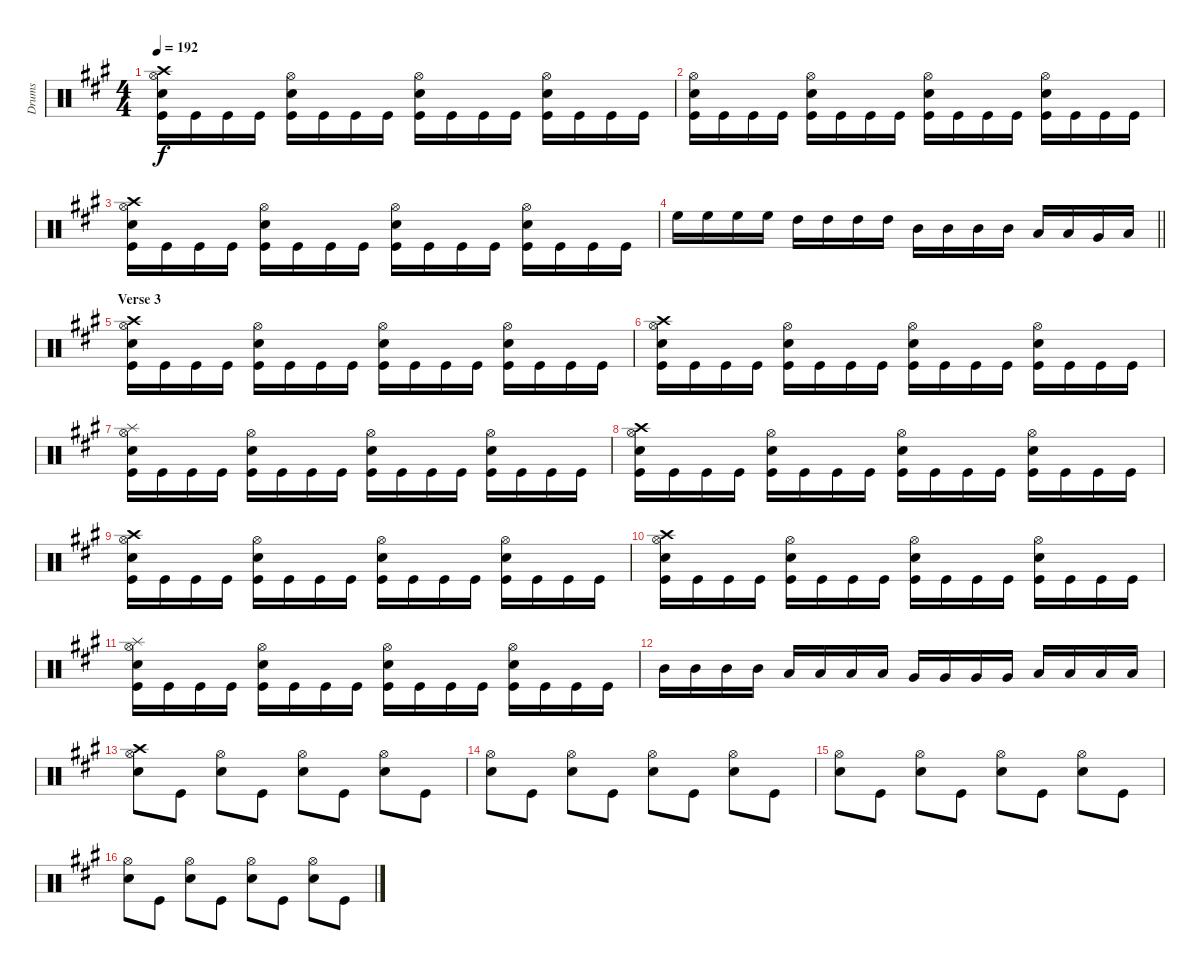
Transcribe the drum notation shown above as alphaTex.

\track ("Drums" "Drums") {instrument percussion}
\staff {score}
\articulation defaults
\ts (4 4)
\tempo 192
\clef neutral
\ks f#minor
("Crash high (hit)" "Hi-Hat (open)" "Snare (hit) 2" "Kick (hit)").16{dy f} "Kick (hit)".16 "Kick (hit)".16 "Kick (hit)".16 ("Hi-Hat (open)" "Snare (hit) 2" "Kick (hit)").16 "Kick (hit)".16 "Kick (hit)".16 "Kick (hit)".16 ("Hi-Hat (open)" "Snare (hit) 2" "Kick (hit)").16 "Kick (hit)".16 "Kick (hit)".16 "Kick (hit)".16 ("Hi-Hat (open)" "Snare (hit) 2" "Kick (hit)").16 "Kick (hit)".16 "Kick (hit)".16 "Kick (hit)".16 |
("Hi-Hat (open)" "Snare (hit) 2" "Kick (hit)").16 "Kick (hit)".16 "Kick (hit)".16 "Kick (hit)".16 ("Hi-Hat (open)" "Snare (hit) 2" "Kick (hit)").16 "Kick (hit)".16 "Kick (hit)".16 "Kick (hit)".16 ("Hi-Hat (open)" "Snare (hit) 2" "Kick (hit)").16 "Kick (hit)".16 "Kick (hit)".16 "Kick (hit)".16 ("Hi-Hat (open)" "Snare (hit) 2" "Kick (hit)").16 "Kick (hit)".16 "Kick (hit)".16 "Kick (hit)".16 |
("Crash high (hit)" "Hi-Hat (open)" "Snare (hit) 2" "Kick (hit)").16 "Kick (hit)".16 "Kick (hit)".16 "Kick (hit)".16 ("Hi-Hat (open)" "Snare (hit) 2" "Kick (hit)").16 "Kick (hit)".16 "Kick (hit)".16 "Kick (hit)".16 ("Hi-Hat (open)" "Snare (hit) 2" "Kick (hit)").16 "Kick (hit)".16 "Kick (hit)".16 "Kick (hit)".16 ("Hi-Hat (open)" "Snare (hit) 2" "Kick (hit)").16 "Kick (hit)".16 "Kick (hit)".16 "Kick (hit)".16 |
\barLineRight lightlight "High Floor Tom (hit)".16 "High Floor Tom (hit)".16 "High Floor Tom (hit)".16 "High Floor Tom (hit)".16 "High Tom (hit)".16 "High Tom (hit)".16 "High Tom (hit)".16 "High Tom (hit)".16 "Mid Tom (hit)".16 "Mid Tom (hit)".16 "Mid Tom (hit)".16 "Mid Tom (hit)".16 "Low Tom (hit)".16 "Low Tom (hit)".16 "Very Low Tom (hit)".16 "Low Floor Tom (hit)".16
|
\section ("" "Verse 3")
("Crash high (hit)" "Hi-Hat (open)" "Snare (hit) 2" "Kick (hit)").16 "Kick (hit)".16 "Kick (hit)".16 "Kick (hit)".16 ("Hi-Hat (open)" "Snare (hit) 2" "Kick (hit)").16 "Kick (hit)".16 "Kick (hit)".16 "Kick (hit)".16 ("Hi-Hat (open)" "Snare (hit) 2" "Kick (hit)").16 "Kick (hit)".16 "Kick (hit)".16 "Kick (hit)".16 ("Hi-Hat (open)" "Snare (hit) 2" "Kick (hit)").16 "Kick (hit)".16 "Kick (hit)".16 "Kick (hit)".16 |
("Crash high (hit)" "Hi-Hat (open)" "Snare (hit) 2" "Kick (hit)").16 "Kick (hit)".16 "Kick (hit)".16 "Kick (hit)".16 ("Hi-Hat (open)" "Snare (hit) 2" "Kick (hit)").16 "Kick (hit)".16 "Kick (hit)".16 "Kick (hit)".16 ("Hi-Hat (open)" "Snare (hit) 2" "Kick (hit)").16 "Kick (hit)".16 "Kick (hit)".16 "Kick (hit)".16 ("Hi-Hat (open)" "Snare (hit) 2" "Kick (hit)").16 "Kick (hit)".16 "Kick (hit)".16 "Kick (hit)".16 |
("Splash (hit)" "Hi-Hat (open)" "Snare (hit) 2" "Kick (hit)").16 "Kick (hit)".16 "Kick (hit)".16 "Kick (hit)".16 ("Hi-Hat (open)" "Snare (hit) 2" "Kick (hit)").16 "Kick (hit)".16 "Kick (hit)".16 "Kick (hit)".16 ("Hi-Hat (open)" "Snare (hit) 2" "Kick (hit)").16 "Kick (hit)".16 "Kick (hit)".16 "Kick (hit)".16 ("Hi-Hat (open)" "Snare (hit) 2" "Kick (hit)").16 "Kick (hit)".16 "Kick (hit)".16 "Kick (hit)".16 |
("Crash high (hit)" "Hi-Hat (open)" "Snare (hit) 2" "Kick (hit)").16 "Kick (hit)".16 "Kick (hit)".16 "Kick (hit)".16 ("Hi-Hat (open)" "Snare (hit) 2" "Kick (hit)").16 "Kick (hit)".16 "Kick (hit)".16 "Kick (hit)".16 ("Hi-Hat (open)" "Snare (hit) 2" "Kick (hit)").16 "Kick (hit)".16 "Kick (hit)".16 "Kick (hit)".16 ("Hi-Hat (open)" "Snare (hit) 2" "Kick (hit)").16 "Kick (hit)".16 "Kick (hit)".16 "Kick (hit)".16 |
("Crash high (hit)" "Hi-Hat (open)" "Snare (hit) 2" "Kick (hit)").16 "Kick (hit)".16 "Kick (hit)".16 "Kick (hit)".16 ("Hi-Hat (open)" "Snare (hit) 2" "Kick (hit)").16 "Kick (hit)".16 "Kick (hit)".16 "Kick (hit)".16 ("Hi-Hat (open)" "Snare (hit) 2" "Kick (hit)").16 "Kick (hit)".16 "Kick (hit)".16 "Kick (hit)".16 ("Hi-Hat (open)" "Snare (hit) 2" "Kick (hit)").16 "Kick (hit)".16 "Kick (hit)".16 "Kick (hit)".16 |
("Crash high (hit)" "Hi-Hat (open)" "Snare (hit) 2" "Kick (hit)").16 "Kick (hit)".16 "Kick (hit)".16 "Kick (hit)".16 ("Hi-Hat (open)" "Snare (hit) 2" "Kick (hit)").16 "Kick (hit)".16 "Kick (hit)".16 "Kick (hit)".16 ("Hi-Hat (open)" "Snare (hit) 2" "Kick (hit)").16 "Kick (hit)".16 "Kick (hit)".16 "Kick (hit)".16 ("Hi-Hat (open)" "Snare (hit) 2" "Kick (hit)").16 "Kick (hit)".16 "Kick (hit)".16 "Kick (hit)".16 |
("Splash (hit)" "Hi-Hat (open)" "Snare (hit) 2" "Kick (hit)").16 "Kick (hit)".16 "Kick (hit)".16 "Kick (hit)".16 ("Hi-Hat (open)" "Snare (hit) 2" "Kick (hit)").16 "Kick (hit)".16 "Kick (hit)".16 "Kick (hit)".16 ("Hi-Hat (open)" "Snare (hit) 2" "Kick (hit)").16 "Kick (hit)".16 "Kick (hit)".16 "Kick (hit)".16 ("Hi-Hat (open)" "Snare (hit) 2" "Kick (hit)").16 "Kick (hit)".16 "Kick (hit)".16 "Kick (hit)".16 |
"Mid Tom (hit)".16 "Mid Tom (hit)".16 "Mid Tom (hit)".16 "Mid Tom (hit)".16 "Low Tom (hit)".16 "Low Tom (hit)".16 "Low Tom (hit)".16 "Low Tom (hit)".16 "Very Low Tom (hit)".16 "Very Low Tom (hit)".16 "Very Low Tom (hit)".16 "Very Low Tom (hit)".16 "Low Floor Tom (hit)".16 "Low Floor Tom (hit)".16 "Low Floor Tom (hit)".16 "Low Floor Tom (hit)".16 |
("Crash high (hit)" "Hi-Hat (open)" "Snare (hit) 2").8 "Kick (hit)".8 ("Hi-Hat (open)" "Snare (hit) 2").8 "Kick (hit)".8 ("Hi-Hat (open)" "Snare (hit) 2").8 "Kick (hit)".8 ("Hi-Hat (open)" "Snare (hit) 2").8 "Kick (hit)".8 |
("Hi-Hat (open)" "Snare (hit) 2").8 "Kick (hit)".8 ("Hi-Hat (open)" "Snare (hit) 2").8 "Kick (hit)".8 ("Hi-Hat (open)" "Snare (hit) 2").8 "Kick (hit)".8 ("Hi-Hat (open)" "Snare (hit) 2").8 "Kick (hit)".8 |
("Hi-Hat (open)" "Snare (hit) 2").8 "Kick (hit)".8 ("Hi-Hat (open)" "Snare (hit) 2").8 "Kick (hit)".8 ("Hi-Hat (open)" "Snare (hit) 2").8 "Kick (hit)".8 ("Hi-Hat (open)" "Snare (hit) 2").8 "Kick (hit)".8 |
("Hi-Hat (open)" "Snare (hit) 2").8 "Kick (hit)".8 ("Hi-Hat (open)" "Snare (hit) 2").8 "Kick (hit)".8 ("Hi-Hat (open)" "Snare (hit) 2").8 "Kick (hit)".8 ("Hi-Hat (open)" "Snare (hit) 2").8 "Kick (hit)".8
